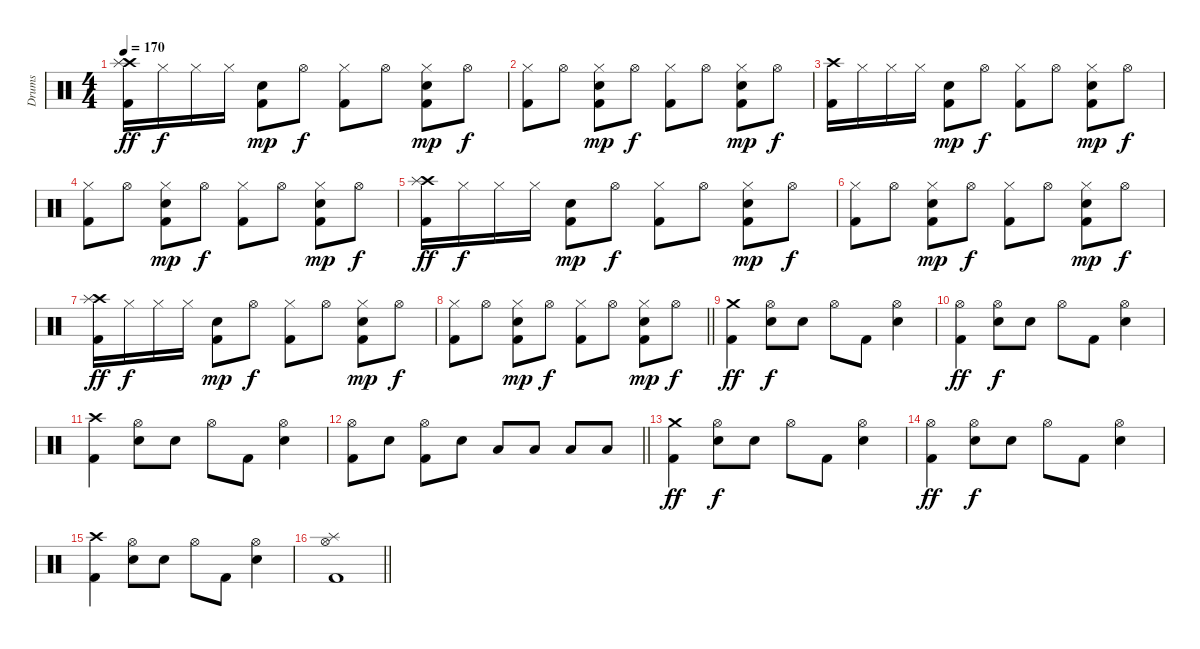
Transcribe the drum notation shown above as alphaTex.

\track ("Drums" "Drums") {instrument percussion}
\staff {score}
\articulation defaults
\ts (4 4)
\tempo 170
\clef neutral
\ks c
("Crash high (hit)" "Kick (hit) 2" "Splash (hit)").16{dy ff} "Hi-Hat (closed)".16{dy f} "Hi-Hat (closed)".16 "Hi-Hat (closed)".16 ("Electric Snare (hit)" "Kick (hit) 2").8{dy mp} "Hi-Hat (open)".8{dy f} ("Hi-Hat (closed)" "Kick (hit) 2").8 "Hi-Hat (open)".8 ("Hi-Hat (closed)" "Electric Snare (hit)" "Kick (hit) 2").8{dy mp} "Hi-Hat (open)".8{dy f} |
("Hi-Hat (closed)" "Kick (hit) 2").8 "Hi-Hat (open)".8 ("Hi-Hat (closed)" "Electric Snare (hit)" "Kick (hit) 2").8{dy mp} "Hi-Hat (open)".8{dy f} ("Hi-Hat (closed)" "Kick (hit) 2").8 "Hi-Hat (open)".8 ("Hi-Hat (closed)" "Electric Snare (hit)" "Kick (hit) 2").8{dy mp} "Hi-Hat (open)".8{dy f} |
("Crash high (hit)" "Kick (hit) 2").16 "Hi-Hat (closed)".16 "Hi-Hat (closed)".16 "Hi-Hat (closed)".16 ("Electric Snare (hit)" "Kick (hit) 2").8{dy mp} "Hi-Hat (open)".8{dy f} ("Hi-Hat (closed)" "Kick (hit) 2").8 "Hi-Hat (open)".8 ("Hi-Hat (closed)" "Electric Snare (hit)" "Kick (hit) 2").8{dy mp} "Hi-Hat (open)".8{dy f} |
("Hi-Hat (closed)" "Kick (hit) 2").8 "Hi-Hat (open)".8 ("Hi-Hat (closed)" "Electric Snare (hit)" "Kick (hit) 2").8{dy mp} "Hi-Hat (open)".8{dy f} ("Hi-Hat (closed)" "Kick (hit) 2").8 "Hi-Hat (open)".8 ("Hi-Hat (closed)" "Electric Snare (hit)" "Kick (hit) 2").8{dy mp} "Hi-Hat (open)".8{dy f} |
("Crash high (hit)" "Kick (hit) 2" "Splash (hit)").16{dy ff} "Hi-Hat (closed)".16{dy f} "Hi-Hat (closed)".16 "Hi-Hat (closed)".16 ("Electric Snare (hit)" "Kick (hit) 2").8{dy mp} "Hi-Hat (open)".8{dy f} ("Hi-Hat (closed)" "Kick (hit) 2").8 "Hi-Hat (open)".8 ("Hi-Hat (closed)" "Electric Snare (hit)" "Kick (hit) 2").8{dy mp} "Hi-Hat (open)".8{dy f} |
("Hi-Hat (closed)" "Kick (hit) 2").8 "Hi-Hat (open)".8 ("Hi-Hat (closed)" "Electric Snare (hit)" "Kick (hit) 2").8{dy mp} "Hi-Hat (open)".8{dy f} ("Hi-Hat (closed)" "Kick (hit) 2").8 "Hi-Hat (open)".8 ("Hi-Hat (closed)" "Electric Snare (hit)" "Kick (hit) 2").8{dy mp} "Hi-Hat (open)".8{dy f} |
("Crash high (hit)" "Kick (hit) 2" "Splash (hit)").16{dy ff} "Hi-Hat (closed)".16{dy f} "Hi-Hat (closed)".16 "Hi-Hat (closed)".16 ("Electric Snare (hit)" "Kick (hit) 2").8{dy mp} "Hi-Hat (open)".8{dy f} ("Hi-Hat (closed)" "Kick (hit) 2").8 "Hi-Hat (open)".8 ("Hi-Hat (closed)" "Electric Snare (hit)" "Kick (hit) 2").8{dy mp} "Hi-Hat (open)".8{dy f} |
\barLineRight lightlight
("Hi-Hat (closed)" "Kick (hit) 2").8 "Hi-Hat (open)".8 ("Hi-Hat (closed)" "Electric Snare (hit)" "Kick (hit) 2").8{dy mp} "Hi-Hat (open)".8{dy f} ("Hi-Hat (closed)" "Kick (hit) 2").8 "Hi-Hat (open)".8 ("Hi-Hat (closed)" "Electric Snare (hit)" "Kick (hit) 2").8{dy mp} "Hi-Hat (open)".8{dy f} |
("Crash medium (hit)" "Kick (hit) 2").4{dy ff} ("Hi-Hat (open)" "Electric Snare (hit)").8{dy f} "Electric Snare (hit)".8 "Hi-Hat (open)".8 "Kick (hit) 2".8 ("Hi-Hat (open)" "Electric Snare (hit)").4 |
("Hi-Hat (open)" "Kick (hit) 2").4{dy ff} ("Hi-Hat (open)" "Electric Snare (hit)").8{dy f} "Electric Snare (hit)".8 "Hi-Hat (open)".8 "Kick (hit) 2".8 ("Hi-Hat (open)" "Electric Snare (hit)").4 |
("Crash high (hit)" "Kick (hit) 2").4 ("Hi-Hat (open)" "Electric Snare (hit)").8 "Electric Snare (hit)".8 "Hi-Hat (open)".8 "Kick (hit) 2".8 ("Hi-Hat (open)" "Electric Snare (hit)").4 |
\barLineRight lightlight
("Hi-Hat (open)" "Kick (hit) 2").8 "Electric Snare (hit)".8 ("Hi-Hat (open)" "Kick (hit) 2").8 "Electric Snare (hit)".8 "Low Tom (hit)".8 "Low Tom (hit)".8 "Low Floor Tom (hit)".8 "Low Floor Tom (hit)".8 |
("Crash medium (hit)" "Kick (hit) 2").4{dy ff} ("Hi-Hat (open)" "Electric Snare (hit)").8{dy f} "Electric Snare (hit)".8 "Hi-Hat (open)".8 "Kick (hit) 2".8 ("Hi-Hat (open)" "Electric Snare (hit)").4 |
("Hi-Hat (open)" "Kick (hit) 2").4{dy ff} ("Hi-Hat (open)" "Electric Snare (hit)").8{dy f} "Electric Snare (hit)".8 "Hi-Hat (open)".8 "Kick (hit) 2".8 ("Hi-Hat (open)" "Electric Snare (hit)").4 |
("Crash high (hit)" "Kick (hit) 2").4 ("Hi-Hat (open)" "Electric Snare (hit)").8 "Electric Snare (hit)".8 "Hi-Hat (open)".8 "Kick (hit) 2".8 ("Hi-Hat (open)" "Electric Snare (hit)").4 |
\barLineRight lightlight
("Hi-Hat (open)" "Splash (hit)" "Kick (hit) 2").1
